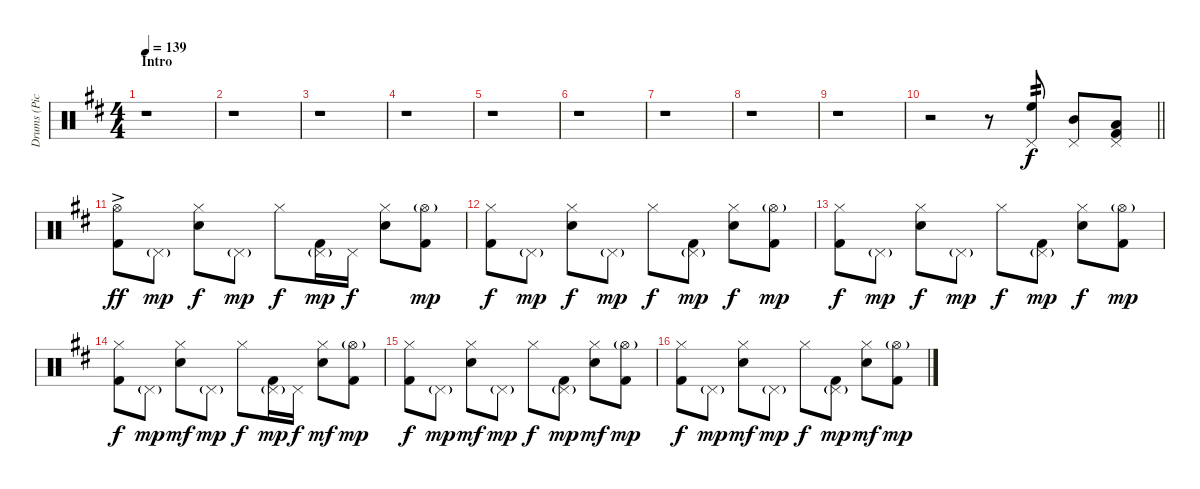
\track ("Drums (Pick)" "Drums (Pic") {instrument percussion}
\staff {score}
\articulation defaults
\ts (4 4)
\section ("" "Intro")
\tempo 139
\clef neutral
\ks d
r.1{dy f} |
r.1 |
r.1 |
r.1 |
r.1 |
r.1 |
r.1 |
r.1 |
r.1 |
\barLineRight lightlight
r.2 r.8 ("Pedal Hi-Hat (hit)" "High Floor Tom (hit)").8{tp 2} ("Pedal Hi-Hat (hit)" "Mid Tom (hit)").8 ("Kick (hit) 2" "Pedal Hi-Hat (hit)" "Low Tom (hit)").8 |
("Kick (hit) 2"{ac} "Hi-Hat (open)").8{txt "" dy ff} "Pedal Hi-Hat (hit)"{g}.8{dy mp} ("Snare (hit) 2" "Hi-Hat (closed)").8{dy f} "Pedal Hi-Hat (hit)"{g}.8{dy mp} "Hi-Hat (closed)".8{dy f} ("Pedal Hi-Hat (hit)"{g} "Kick (hit) 2").16{dy mp} "Pedal Hi-Hat (hit)".16{dy f} ("Snare (hit) 2" "Hi-Hat (closed)").8 ("Kick (hit) 2" "Hi-Hat (open)"{g}).8{dy mp} |
("Kick (hit) 2" "Hi-Hat (closed)").8{dy f} "Pedal Hi-Hat (hit)"{g}.8{dy mp} ("Snare (hit) 2" "Hi-Hat (closed)").8{dy f} "Pedal Hi-Hat (hit)"{g}.8{dy mp} "Hi-Hat (closed)".8{dy f} ("Pedal Hi-Hat (hit)"{g} "Kick (hit) 2").8{dy mp} ("Snare (hit) 2" "Hi-Hat (closed)").8{dy f} ("Kick (hit) 2" "Hi-Hat (open)"{g}).8{dy mp} |
("Kick (hit) 2" "Hi-Hat (closed)").8{dy f} "Pedal Hi-Hat (hit)"{g}.8{dy mp} ("Snare (hit) 2" "Hi-Hat (closed)").8{dy f} "Pedal Hi-Hat (hit)"{g}.8{dy mp} "Hi-Hat (closed)".8{dy f} ("Pedal Hi-Hat (hit)"{g} "Kick (hit) 2").8{dy mp} ("Snare (hit) 2" "Hi-Hat (closed)").8{dy f} ("Kick (hit) 2" "Hi-Hat (open)"{g}).8{dy mp} |
("Kick (hit) 2" "Hi-Hat (closed)").8{dy f} "Pedal Hi-Hat (hit)"{g}.8{dy mp} ("Snare (hit) 2" "Hi-Hat (closed)").8{dy mf} "Pedal Hi-Hat (hit)"{g}.8{dy mp} "Hi-Hat (closed)".8{dy f} ("Pedal Hi-Hat (hit)"{g} "Kick (hit) 2").16{dy mp} "Pedal Hi-Hat (hit)".16{dy f} ("Snare (hit) 2" "Hi-Hat (closed)").8{dy mf} ("Kick (hit) 2" "Hi-Hat (open)"{g}).8{dy mp} |
("Kick (hit) 2" "Hi-Hat (closed)").8{dy f} "Pedal Hi-Hat (hit)"{g}.8{dy mp} ("Snare (hit) 2" "Hi-Hat (closed)").8{dy mf} "Pedal Hi-Hat (hit)"{g}.8{dy mp} "Hi-Hat (closed)".8{dy f} ("Pedal Hi-Hat (hit)"{g} "Kick (hit) 2").8{dy mp} ("Snare (hit) 2" "Hi-Hat (closed)").8{dy mf} ("Kick (hit) 2" "Hi-Hat (open)"{g}).8{dy mp} |
("Kick (hit) 2" "Hi-Hat (closed)").8{dy f} "Pedal Hi-Hat (hit)"{g}.8{dy mp} ("Snare (hit) 2" "Hi-Hat (closed)").8{dy mf} "Pedal Hi-Hat (hit)"{g}.8{dy mp} "Hi-Hat (closed)".8{dy f} ("Pedal Hi-Hat (hit)"{g} "Kick (hit) 2").8{dy mp} ("Snare (hit) 2" "Hi-Hat (closed)").8{dy mf} ("Kick (hit) 2" "Hi-Hat (open)"{g}).8{dy mp}
